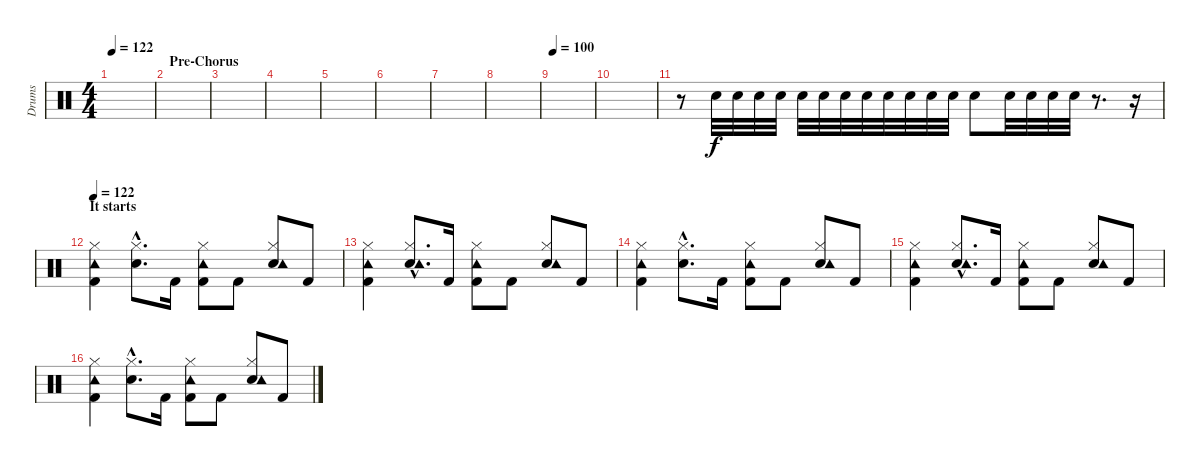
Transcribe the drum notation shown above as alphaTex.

\track ("Drums" "Drums") {instrument percussion}
\staff {score}
\articulation defaults
\ts (4 4)
\tempo 122
\clef neutral
\ks c
|
\section ("" "Pre-Chorus")
|
|
|
|
|
|
|
\tempo 100
|
|
r.8 "Electric Snare (hit)".32 "Electric Snare (hit)".32 "Electric Snare (hit)".32 "Electric Snare (hit)".32 "Electric Snare (hit)".32 "Electric Snare (hit)".32 "Electric Snare (hit)".32 "Electric Snare (hit)".32 "Electric Snare (hit)".32 "Electric Snare (hit)".32 "Electric Snare (hit)".32 "Electric Snare (hit)".32 "Electric Snare (hit)".8 "Electric Snare (hit)".32 "Electric Snare (hit)".32 "Electric Snare (hit)".32 "Electric Snare (hit)".32 r.8{d} r.16 |
\section ("" "It starts")
\tempo 122
("Hi-Hat (closed)" "Kick (hit) 2" "Tambourine (hit)").4 ("Hi-Hat (closed)"{hac} "Electric Snare (hit)"{hac}).8{d} "Kick (hit) 2".16 ("Hi-Hat (closed)" "Kick (hit) 2" "Tambourine (hit)").8 "Kick (hit) 2".8 ("Hi-Hat (closed)" "Electric Snare (hit)" "Tambourine (hit)").8 "Kick (hit) 2".8 |
("Hi-Hat (closed)" "Kick (hit) 2" "Tambourine (hit)").4 ("Hi-Hat (closed)"{hac} "Electric Snare (hit)"{hac} "Tambourine (hit)"{hac}).8{d} "Kick (hit) 2".16 ("Hi-Hat (closed)" "Kick (hit) 2" "Tambourine (hit)").8 "Kick (hit) 2".8 ("Hi-Hat (closed)" "Electric Snare (hit)" "Tambourine (hit)").8 "Kick (hit) 2".8 |
("Hi-Hat (closed)" "Kick (hit) 2" "Tambourine (hit)").4 ("Hi-Hat (closed)"{hac} "Electric Snare (hit)"{hac}).8{d} "Kick (hit) 2".16 ("Hi-Hat (closed)" "Kick (hit) 2" "Tambourine (hit)").8 "Kick (hit) 2".8 ("Hi-Hat (closed)" "Electric Snare (hit)" "Tambourine (hit)").8 "Kick (hit) 2".8 |
("Hi-Hat (closed)" "Kick (hit) 2" "Tambourine (hit)").4 ("Hi-Hat (closed)"{hac} "Electric Snare (hit)"{hac} "Tambourine (hit)"{hac}).8{d} "Kick (hit) 2".16 ("Hi-Hat (closed)" "Kick (hit) 2" "Tambourine (hit)").8 "Kick (hit) 2".8 ("Hi-Hat (closed)" "Electric Snare (hit)" "Tambourine (hit)").8 "Kick (hit) 2".8 |
("Hi-Hat (closed)" "Kick (hit) 2" "Tambourine (hit)").4 ("Hi-Hat (closed)"{hac} "Electric Snare (hit)"{hac}).8{d} "Kick (hit) 2".16 ("Hi-Hat (closed)" "Kick (hit) 2" "Tambourine (hit)").8 "Kick (hit) 2".8 ("Hi-Hat (closed)" "Electric Snare (hit)" "Tambourine (hit)").8 "Kick (hit) 2".8
